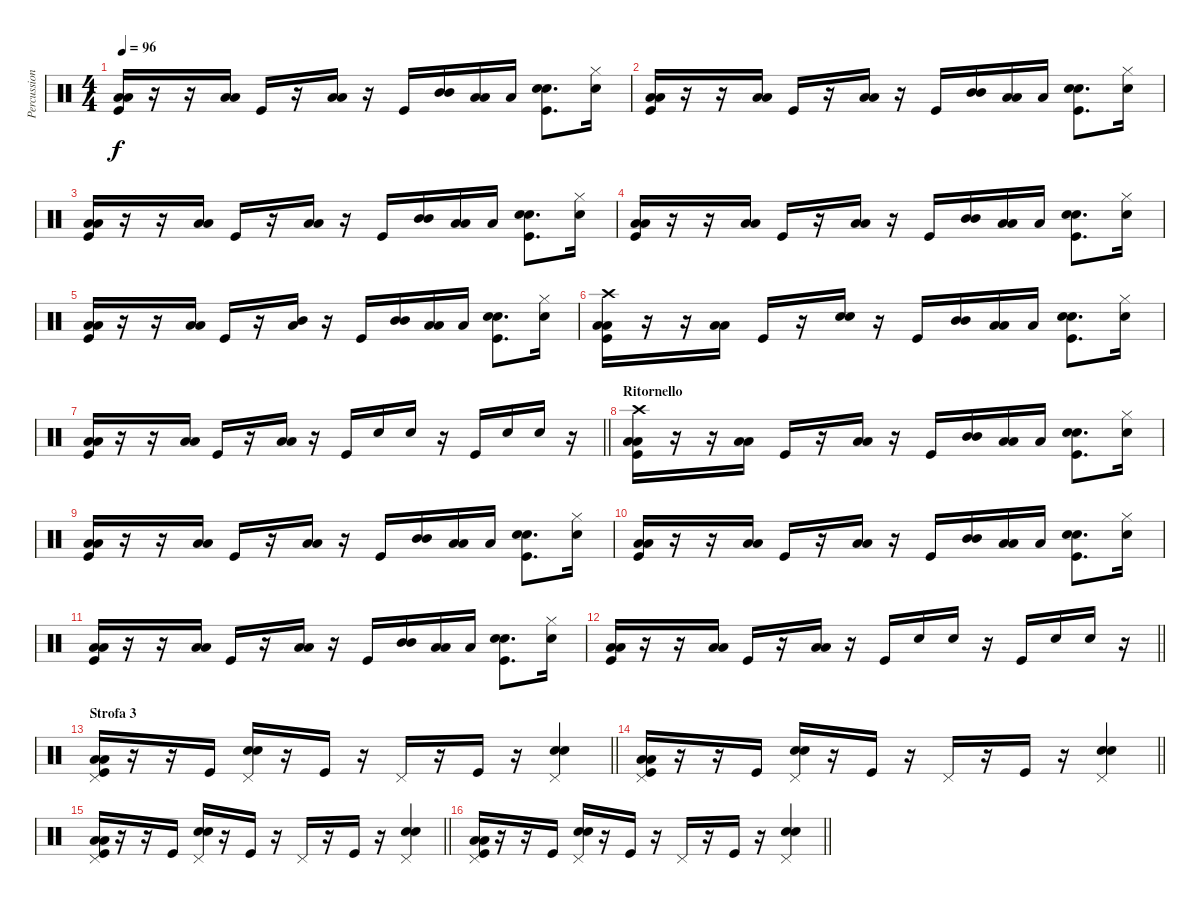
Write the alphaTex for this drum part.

\track ("Percussioni" "Percussion") {instrument percussion}
\staff {score}
\articulation defaults
\ts (4 4)
\tempo 96
\clef neutral
\ks c
("Low Tom (hit)" "Low Tom (hit)" "Kick (hit)").16{dy f} r.16 r.16 ("Low Tom (hit)" "Low Tom (hit)").16 "Kick (hit)".16 r.16 ("Low Tom (hit)" "Low Tom (hit)").16 r.16 "Kick (hit)".16 ("Mid Tom (hit)" "Mid Tom (hit)").16 ("Low Tom (hit)" "Low Tom (hit)").16 "Low Tom (hit)".16 ("Snare (hit) 2" "Snare (hit) 2" "Kick (hit)").8{d} ("Hi-Hat (closed)" "Snare (hit) 2").16 |
("Low Tom (hit)" "Low Tom (hit)" "Kick (hit)").16 r.16 r.16 ("Low Tom (hit)" "Low Tom (hit)").16 "Kick (hit)".16 r.16 ("Low Tom (hit)" "Low Tom (hit)").16 r.16 "Kick (hit)".16 ("Mid Tom (hit)" "Mid Tom (hit)").16 ("Low Tom (hit)" "Low Tom (hit)").16 "Low Tom (hit)".16 ("Snare (hit) 2" "Snare (hit) 2" "Kick (hit)").8{d} ("Hi-Hat (closed)" "Snare (hit) 2").16 |
("Low Tom (hit)" "Low Tom (hit)" "Kick (hit)").16 r.16 r.16 ("Low Tom (hit)" "Low Tom (hit)").16 "Kick (hit)".16 r.16 ("Low Tom (hit)" "Low Tom (hit)").16 r.16 "Kick (hit)".16 ("Mid Tom (hit)" "Mid Tom (hit)").16 ("Low Tom (hit)" "Low Tom (hit)").16 "Low Tom (hit)".16 ("Snare (hit) 2" "Snare (hit) 2" "Kick (hit)").8{d} ("Hi-Hat (closed)" "Snare (hit) 2").16 |
("Low Tom (hit)" "Low Tom (hit)" "Kick (hit)").16 r.16 r.16 ("Low Tom (hit)" "Low Tom (hit)").16 "Kick (hit)".16 r.16 ("Low Tom (hit)" "Low Tom (hit)").16 r.16 "Kick (hit)".16 ("Mid Tom (hit)" "Mid Tom (hit)").16 ("Low Tom (hit)" "Low Tom (hit)").16 "Low Tom (hit)".16 ("Snare (hit) 2" "Snare (hit) 2" "Kick (hit)").8{d} ("Hi-Hat (closed)" "Snare (hit) 2").16 |
("Low Tom (hit)" "Low Tom (hit)" "Kick (hit)").16 r.16 r.16 ("Low Tom (hit)" "Low Tom (hit)").16 "Kick (hit)".16 r.16 ("Mid Tom (hit)" "Low Tom (hit)").16 r.16 "Kick (hit)".16 ("Mid Tom (hit)" "Mid Tom (hit)").16 ("Low Tom (hit)" "Low Tom (hit)").16 "Low Tom (hit)".16 ("Snare (hit) 2" "Snare (hit) 2" "Kick (hit)").8{d} ("Hi-Hat (closed)" "Snare (hit) 2").16 |
("Crash high (hit)" "Low Tom (hit)" "Low Tom (hit)" "Kick (hit)").16 r.16 r.16 ("Low Tom (hit)" "Low Tom (hit)").16 "Kick (hit)".16 r.16 ("Snare (hit) 2" "Snare (hit) 2").16 r.16 "Kick (hit)".16 ("Mid Tom (hit)" "Mid Tom (hit)").16 ("Low Tom (hit)" "Low Tom (hit)").16 "Low Tom (hit)".16 ("Snare (hit) 2" "Snare (hit) 2" "Kick (hit)").8{d} ("Hi-Hat (closed)" "Snare (hit) 2").16 |
\barLineRight lightlight
("Low Tom (hit)" "Low Tom (hit)" "Kick (hit)").16 r.16 r.16 ("Low Tom (hit)" "Low Tom (hit)").16 "Kick (hit)".16 r.16 ("Low Tom (hit)" "Low Tom (hit)").16 r.16 "Kick (hit)".16 "Snare (hit) 2".16 "Snare (hit) 2".16 r.16 "Kick (hit)".16 "Snare (hit) 2".16 "Snare (hit) 2".16 r.16 |
\section ("" "Ritornello")
("Crash high (hit)" "Low Tom (hit)" "Low Tom (hit)" "Kick (hit)").16{volume 16} r.16 r.16 ("Low Tom (hit)" "Low Tom (hit)").16 "Kick (hit)".16 r.16 ("Low Tom (hit)" "Low Tom (hit)").16 r.16 "Kick (hit)".16 ("Mid Tom (hit)" "Mid Tom (hit)").16 ("Low Tom (hit)" "Low Tom (hit)").16 "Low Tom (hit)".16 ("Snare (hit) 2" "Snare (hit) 2" "Kick (hit)").8{d} ("Hi-Hat (closed)" "Snare (hit) 2").16 |
("Low Tom (hit)" "Low Tom (hit)" "Kick (hit)").16 r.16 r.16 ("Low Tom (hit)" "Low Tom (hit)").16 "Kick (hit)".16 r.16 ("Low Tom (hit)" "Low Tom (hit)").16 r.16 "Kick (hit)".16 ("Mid Tom (hit)" "Mid Tom (hit)").16 ("Low Tom (hit)" "Low Tom (hit)").16 "Low Tom (hit)".16 ("Snare (hit) 2" "Snare (hit) 2" "Kick (hit)").8{d} ("Hi-Hat (closed)" "Snare (hit) 2").16 |
("Low Tom (hit)" "Low Tom (hit)" "Kick (hit)").16 r.16 r.16 ("Low Tom (hit)" "Low Tom (hit)").16 "Kick (hit)".16 r.16 ("Low Tom (hit)" "Low Tom (hit)").16 r.16 "Kick (hit)".16 ("Mid Tom (hit)" "Mid Tom (hit)").16 ("Low Tom (hit)" "Low Tom (hit)").16 "Low Tom (hit)".16 ("Snare (hit) 2" "Snare (hit) 2" "Kick (hit)").8{d} ("Hi-Hat (closed)" "Snare (hit) 2").16 |
("Low Tom (hit)" "Low Tom (hit)" "Kick (hit)").16 r.16 r.16 ("Low Tom (hit)" "Low Tom (hit)").16 "Kick (hit)".16 r.16 ("Low Tom (hit)" "Low Tom (hit)").16 r.16 "Kick (hit)".16 ("Mid Tom (hit)" "Mid Tom (hit)").16 ("Low Tom (hit)" "Low Tom (hit)").16 "Low Tom (hit)".16 ("Snare (hit) 2" "Snare (hit) 2" "Kick (hit)").8{d} ("Hi-Hat (closed)" "Snare (hit) 2").16 |
\barLineRight lightlight
("Low Tom (hit)" "Low Tom (hit)" "Kick (hit)").16 r.16 r.16 ("Low Tom (hit)" "Low Tom (hit)").16 "Kick (hit)".16 r.16 ("Low Tom (hit)" "Low Tom (hit)").16 r.16 "Kick (hit)".16 "Snare (hit) 2".16 "Snare (hit) 2".16 r.16 "Kick (hit)".16 "Snare (hit) 2".16 "Snare (hit) 2".16 r.16 |
\section ("" "Strofa 3")
\barLineRight lightlight
("Low Tom (hit)" "Low Tom (hit)" "Kick (hit)" "Pedal Hi-Hat (hit)").16 r.16 r.16 "Kick (hit)".16 ("Snare (hit) 2" "Snare (hit) 2" "Pedal Hi-Hat (hit)").16 r.16 "Kick (hit)".16 r.16 "Pedal Hi-Hat (hit)".16 r.16 "Kick (hit)".16 r.16 ("Snare (hit) 2" "Snare (hit) 2" "Pedal Hi-Hat (hit)").4 |
\barLineRight lightlight
("Low Tom (hit)" "Low Tom (hit)" "Kick (hit)" "Pedal Hi-Hat (hit)").16 r.16 r.16 "Kick (hit)".16 ("Snare (hit) 2" "Snare (hit) 2" "Pedal Hi-Hat (hit)").16 r.16 "Kick (hit)".16 r.16 "Pedal Hi-Hat (hit)".16 r.16 "Kick (hit)".16 r.16 ("Snare (hit) 2" "Snare (hit) 2" "Pedal Hi-Hat (hit)").4 |
\barLineRight lightlight
("Low Tom (hit)" "Low Tom (hit)" "Kick (hit)" "Pedal Hi-Hat (hit)").16 r.16 r.16 "Kick (hit)".16 ("Snare (hit) 2" "Snare (hit) 2" "Pedal Hi-Hat (hit)").16 r.16 "Kick (hit)".16 r.16 "Pedal Hi-Hat (hit)".16 r.16 "Kick (hit)".16 r.16 ("Snare (hit) 2" "Snare (hit) 2" "Pedal Hi-Hat (hit)").4 |
\barLineRight lightlight
("Low Tom (hit)" "Low Tom (hit)" "Kick (hit)" "Pedal Hi-Hat (hit)").16 r.16 r.16 "Kick (hit)".16 ("Snare (hit) 2" "Snare (hit) 2" "Pedal Hi-Hat (hit)").16 r.16 "Kick (hit)".16 r.16 "Pedal Hi-Hat (hit)".16 r.16 "Kick (hit)".16 r.16 ("Snare (hit) 2" "Snare (hit) 2" "Pedal Hi-Hat (hit)").4
